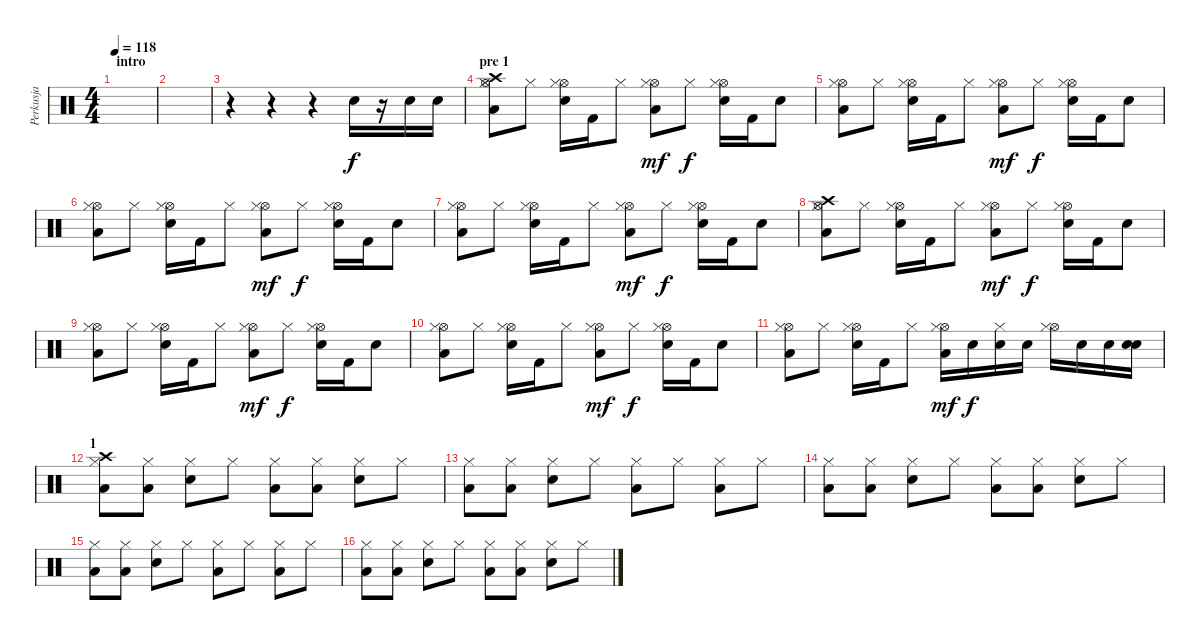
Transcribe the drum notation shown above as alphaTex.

\track ("Perkusja" "Perkusja") {instrument percussion}
\staff {score}
\articulation defaults
\ts (4 4)
\section ("" "intro")
\tempo 118
\clef neutral
\ks c
|
|
r.4 r.4 r.4 "Electric Snare (hit)".16 r.16 "Electric Snare (hit)".16 "Electric Snare (hit)".16 |
\section ("" "pre 1")
("Crash high (hit)" "Low Tom (hit)" "Hi-Hat (open)" "Hi-Hat (closed)").8 "Hi-Hat (closed)".8 ("Electric Snare (hit)" "Hi-Hat (open)" "Hi-Hat (closed)").16 "Kick (hit) 2".16 "Hi-Hat (closed)".8 ("Low Tom (hit)" "Hi-Hat (open)" "Hi-Hat (closed)").8{dy mf} "Hi-Hat (closed)".8{dy f} ("Electric Snare (hit)" "Hi-Hat (open)" "Hi-Hat (closed)").16 "Kick (hit) 2".16 "Snare (hit)".8 |
("Low Tom (hit)" "Hi-Hat (open)" "Hi-Hat (closed)").8 "Hi-Hat (closed)".8 ("Electric Snare (hit)" "Hi-Hat (open)" "Hi-Hat (closed)").16 "Kick (hit) 2".16 "Hi-Hat (closed)".8 ("Low Tom (hit)" "Hi-Hat (open)" "Hi-Hat (closed)").8{dy mf} "Hi-Hat (closed)".8{dy f} ("Electric Snare (hit)" "Hi-Hat (open)" "Hi-Hat (closed)").16 "Kick (hit) 2".16 "Snare (hit)".8 |
("Low Tom (hit)" "Hi-Hat (open)" "Hi-Hat (closed)").8 "Hi-Hat (closed)".8 ("Electric Snare (hit)" "Hi-Hat (open)" "Hi-Hat (closed)").16 "Kick (hit) 2".16 "Hi-Hat (closed)".8 ("Low Tom (hit)" "Hi-Hat (open)" "Hi-Hat (closed)").8{dy mf} "Hi-Hat (closed)".8{dy f} ("Electric Snare (hit)" "Hi-Hat (open)" "Hi-Hat (closed)").16 "Kick (hit) 2".16 "Snare (hit)".8 |
("Low Tom (hit)" "Hi-Hat (open)" "Hi-Hat (closed)").8 "Hi-Hat (closed)".8 ("Electric Snare (hit)" "Hi-Hat (open)" "Hi-Hat (closed)").16 "Kick (hit) 2".16 "Hi-Hat (closed)".8 ("Low Tom (hit)" "Hi-Hat (open)" "Hi-Hat (closed)").8{dy mf} "Hi-Hat (closed)".8{dy f} ("Electric Snare (hit)" "Hi-Hat (open)" "Hi-Hat (closed)").16 "Kick (hit) 2".16 "Snare (hit)".8 |
("Crash high (hit)" "Low Tom (hit)" "Hi-Hat (open)" "Hi-Hat (closed)").8 "Hi-Hat (closed)".8 ("Electric Snare (hit)" "Hi-Hat (open)" "Hi-Hat (closed)").16 "Kick (hit) 2".16 "Hi-Hat (closed)".8 ("Low Tom (hit)" "Hi-Hat (open)" "Hi-Hat (closed)").8{dy mf} "Hi-Hat (closed)".8{dy f} ("Electric Snare (hit)" "Hi-Hat (open)" "Hi-Hat (closed)").16 "Kick (hit) 2".16 "Snare (hit)".8 |
("Low Tom (hit)" "Hi-Hat (open)" "Hi-Hat (closed)").8 "Hi-Hat (closed)".8 ("Electric Snare (hit)" "Hi-Hat (open)" "Hi-Hat (closed)").16 "Kick (hit) 2".16 "Hi-Hat (closed)".8 ("Low Tom (hit)" "Hi-Hat (open)" "Hi-Hat (closed)").8{dy mf} "Hi-Hat (closed)".8{dy f} ("Electric Snare (hit)" "Hi-Hat (open)" "Hi-Hat (closed)").16 "Kick (hit) 2".16 "Snare (hit)".8 |
("Low Tom (hit)" "Hi-Hat (open)" "Hi-Hat (closed)").8 "Hi-Hat (closed)".8 ("Electric Snare (hit)" "Hi-Hat (open)" "Hi-Hat (closed)").16 "Kick (hit) 2".16 "Hi-Hat (closed)".8 ("Low Tom (hit)" "Hi-Hat (open)" "Hi-Hat (closed)").8{dy mf} "Hi-Hat (closed)".8{dy f} ("Electric Snare (hit)" "Hi-Hat (open)" "Hi-Hat (closed)").16 "Kick (hit) 2".16 "Snare (hit)".8 |
("Low Tom (hit)" "Hi-Hat (open)" "Hi-Hat (closed)").8 "Hi-Hat (closed)".8 ("Electric Snare (hit)" "Hi-Hat (open)" "Hi-Hat (closed)").16 "Kick (hit) 2".16 "Hi-Hat (closed)".8 ("Low Tom (hit)" "Hi-Hat (open)" "Hi-Hat (closed)").16{dy mf} "Electric Snare (hit)".16{dy f} ("Electric Snare (hit)" "Hi-Hat (closed)").16 "Electric Snare (hit)".16 ("Hi-Hat (open)" "Hi-Hat (closed)").16 "Electric Snare (hit)".16 "Electric Snare (hit)".16 ("Electric Snare (hit)" "Snare (hit)").16 |
\section ("" "1")
("Hi-Hat (closed)" "Crash high (hit)" "Low Tom (hit)").8 ("Hi-Hat (closed)" "Low Tom (hit)").8 ("Hi-Hat (closed)" "Electric Snare (hit)").8 "Hi-Hat (closed)".8 ("Hi-Hat (closed)" "Low Tom (hit)").8 ("Hi-Hat (closed)" "Low Tom (hit)").8 ("Hi-Hat (closed)" "Electric Snare (hit)").8 "Hi-Hat (closed)".8 |
("Hi-Hat (closed)" "Low Tom (hit)").8 ("Hi-Hat (closed)" "Low Tom (hit)").8 ("Hi-Hat (closed)" "Electric Snare (hit)").8 "Hi-Hat (closed)".8 ("Hi-Hat (closed)" "Low Tom (hit)").8 "Hi-Hat (closed)".8 ("Hi-Hat (closed)" "Low Tom (hit)").8 "Hi-Hat (closed)".8 |
("Hi-Hat (closed)" "Low Tom (hit)").8 ("Hi-Hat (closed)" "Low Tom (hit)").8 ("Hi-Hat (closed)" "Electric Snare (hit)").8 "Hi-Hat (closed)".8 ("Hi-Hat (closed)" "Low Tom (hit)").8 ("Hi-Hat (closed)" "Low Tom (hit)").8 ("Hi-Hat (closed)" "Electric Snare (hit)").8 "Hi-Hat (closed)".8 |
("Hi-Hat (closed)" "Low Tom (hit)").8 ("Hi-Hat (closed)" "Low Tom (hit)").8 ("Hi-Hat (closed)" "Electric Snare (hit)").8 "Hi-Hat (closed)".8 ("Hi-Hat (closed)" "Low Tom (hit)").8 "Hi-Hat (closed)".8 ("Hi-Hat (closed)" "Low Tom (hit)").8 "Hi-Hat (closed)".8 |
("Hi-Hat (closed)" "Low Tom (hit)").8 ("Hi-Hat (closed)" "Low Tom (hit)").8 ("Hi-Hat (closed)" "Electric Snare (hit)").8 "Hi-Hat (closed)".8 ("Hi-Hat (closed)" "Low Tom (hit)").8 ("Hi-Hat (closed)" "Low Tom (hit)").8 ("Hi-Hat (closed)" "Electric Snare (hit)").8 "Hi-Hat (closed)".8
